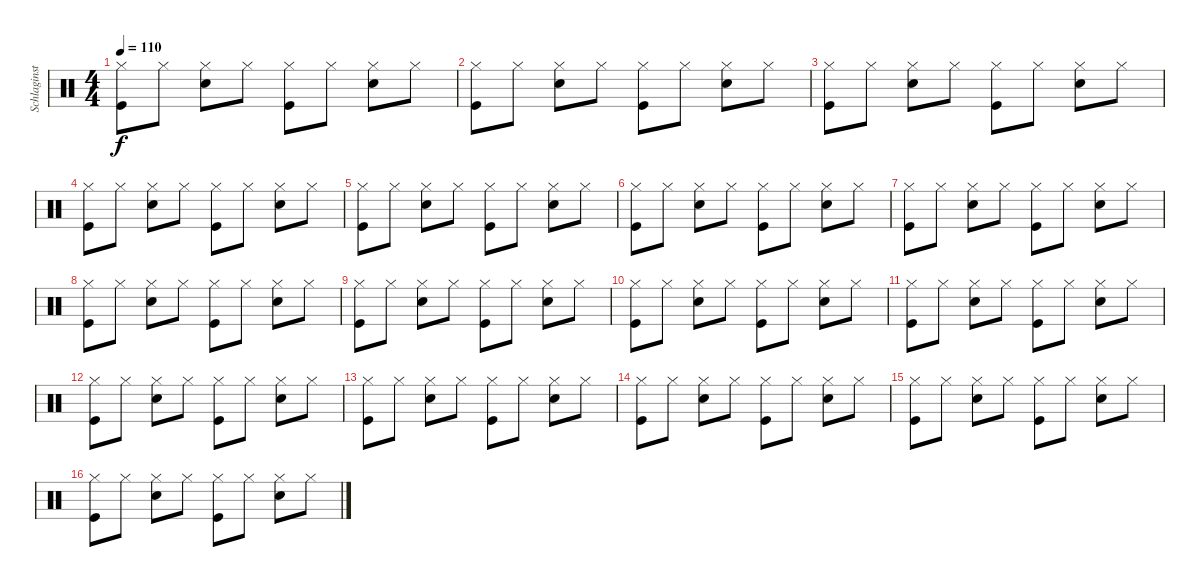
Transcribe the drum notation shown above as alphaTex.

\track ("Schlaginstrument" "Schlaginst") {instrument percussion}
\staff {score}
\articulation defaults
\ts (4 4)
\tempo 110
\clef neutral
\ks c
("Hi-Hat (closed)" "Kick (hit)").8{dy f} "Hi-Hat (closed)".8 ("Hi-Hat (closed)" "Snare (hit) 2").8 "Hi-Hat (closed)".8 ("Hi-Hat (closed)" "Kick (hit)").8 "Hi-Hat (closed)".8 ("Hi-Hat (closed)" "Snare (hit) 2").8 "Hi-Hat (closed)".8 |
("Hi-Hat (closed)" "Kick (hit)").8 "Hi-Hat (closed)".8 ("Hi-Hat (closed)" "Snare (hit) 2").8 "Hi-Hat (closed)".8 ("Hi-Hat (closed)" "Kick (hit)").8 "Hi-Hat (closed)".8 ("Hi-Hat (closed)" "Snare (hit) 2").8 "Hi-Hat (closed)".8 |
("Hi-Hat (closed)" "Kick (hit)").8 "Hi-Hat (closed)".8 ("Hi-Hat (closed)" "Snare (hit) 2").8 "Hi-Hat (closed)".8 ("Hi-Hat (closed)" "Kick (hit)").8 "Hi-Hat (closed)".8 ("Hi-Hat (closed)" "Snare (hit) 2").8 "Hi-Hat (closed)".8 |
("Hi-Hat (closed)" "Kick (hit)").8 "Hi-Hat (closed)".8 ("Hi-Hat (closed)" "Snare (hit) 2").8 "Hi-Hat (closed)".8 ("Hi-Hat (closed)" "Kick (hit)").8 "Hi-Hat (closed)".8 ("Hi-Hat (closed)" "Snare (hit) 2").8 "Hi-Hat (closed)".8 |
("Hi-Hat (closed)" "Kick (hit)").8 "Hi-Hat (closed)".8 ("Hi-Hat (closed)" "Snare (hit) 2").8 "Hi-Hat (closed)".8 ("Hi-Hat (closed)" "Kick (hit)").8 "Hi-Hat (closed)".8 ("Hi-Hat (closed)" "Snare (hit) 2").8 "Hi-Hat (closed)".8 |
("Hi-Hat (closed)" "Kick (hit)").8 "Hi-Hat (closed)".8 ("Hi-Hat (closed)" "Snare (hit) 2").8 "Hi-Hat (closed)".8 ("Hi-Hat (closed)" "Kick (hit)").8 "Hi-Hat (closed)".8 ("Hi-Hat (closed)" "Snare (hit) 2").8 "Hi-Hat (closed)".8 |
("Hi-Hat (closed)" "Kick (hit)").8 "Hi-Hat (closed)".8 ("Hi-Hat (closed)" "Snare (hit) 2").8 "Hi-Hat (closed)".8 ("Hi-Hat (closed)" "Kick (hit)").8 "Hi-Hat (closed)".8 ("Hi-Hat (closed)" "Snare (hit) 2").8 "Hi-Hat (closed)".8 |
("Hi-Hat (closed)" "Kick (hit)").8 "Hi-Hat (closed)".8 ("Hi-Hat (closed)" "Snare (hit) 2").8 "Hi-Hat (closed)".8 ("Hi-Hat (closed)" "Kick (hit)").8 "Hi-Hat (closed)".8 ("Hi-Hat (closed)" "Snare (hit) 2").8 "Hi-Hat (closed)".8 |
("Hi-Hat (closed)" "Kick (hit)").8 "Hi-Hat (closed)".8 ("Hi-Hat (closed)" "Snare (hit) 2").8 "Hi-Hat (closed)".8 ("Hi-Hat (closed)" "Kick (hit)").8 "Hi-Hat (closed)".8 ("Hi-Hat (closed)" "Snare (hit) 2").8 "Hi-Hat (closed)".8 |
("Hi-Hat (closed)" "Kick (hit)").8 "Hi-Hat (closed)".8 ("Hi-Hat (closed)" "Snare (hit) 2").8 "Hi-Hat (closed)".8 ("Hi-Hat (closed)" "Kick (hit)").8 "Hi-Hat (closed)".8 ("Hi-Hat (closed)" "Snare (hit) 2").8 "Hi-Hat (closed)".8 |
("Hi-Hat (closed)" "Kick (hit)").8 "Hi-Hat (closed)".8 ("Hi-Hat (closed)" "Snare (hit) 2").8 "Hi-Hat (closed)".8 ("Hi-Hat (closed)" "Kick (hit)").8 "Hi-Hat (closed)".8 ("Hi-Hat (closed)" "Snare (hit) 2").8 "Hi-Hat (closed)".8 |
("Hi-Hat (closed)" "Kick (hit)").8 "Hi-Hat (closed)".8 ("Hi-Hat (closed)" "Snare (hit) 2").8 "Hi-Hat (closed)".8 ("Hi-Hat (closed)" "Kick (hit)").8 "Hi-Hat (closed)".8 ("Hi-Hat (closed)" "Snare (hit) 2").8 "Hi-Hat (closed)".8 |
("Hi-Hat (closed)" "Kick (hit)").8 "Hi-Hat (closed)".8 ("Hi-Hat (closed)" "Snare (hit) 2").8 "Hi-Hat (closed)".8 ("Hi-Hat (closed)" "Kick (hit)").8 "Hi-Hat (closed)".8 ("Hi-Hat (closed)" "Snare (hit) 2").8 "Hi-Hat (closed)".8 |
("Hi-Hat (closed)" "Kick (hit)").8 "Hi-Hat (closed)".8 ("Hi-Hat (closed)" "Snare (hit) 2").8 "Hi-Hat (closed)".8 ("Hi-Hat (closed)" "Kick (hit)").8 "Hi-Hat (closed)".8 ("Hi-Hat (closed)" "Snare (hit) 2").8 "Hi-Hat (closed)".8 |
("Hi-Hat (closed)" "Kick (hit)").8 "Hi-Hat (closed)".8 ("Hi-Hat (closed)" "Snare (hit) 2").8 "Hi-Hat (closed)".8 ("Hi-Hat (closed)" "Kick (hit)").8 "Hi-Hat (closed)".8 ("Hi-Hat (closed)" "Snare (hit) 2").8 "Hi-Hat (closed)".8 |
("Hi-Hat (closed)" "Kick (hit)").8 "Hi-Hat (closed)".8 ("Hi-Hat (closed)" "Snare (hit) 2").8 "Hi-Hat (closed)".8 ("Hi-Hat (closed)" "Kick (hit)").8 "Hi-Hat (closed)".8 ("Hi-Hat (closed)" "Snare (hit) 2").8 "Hi-Hat (closed)".8
